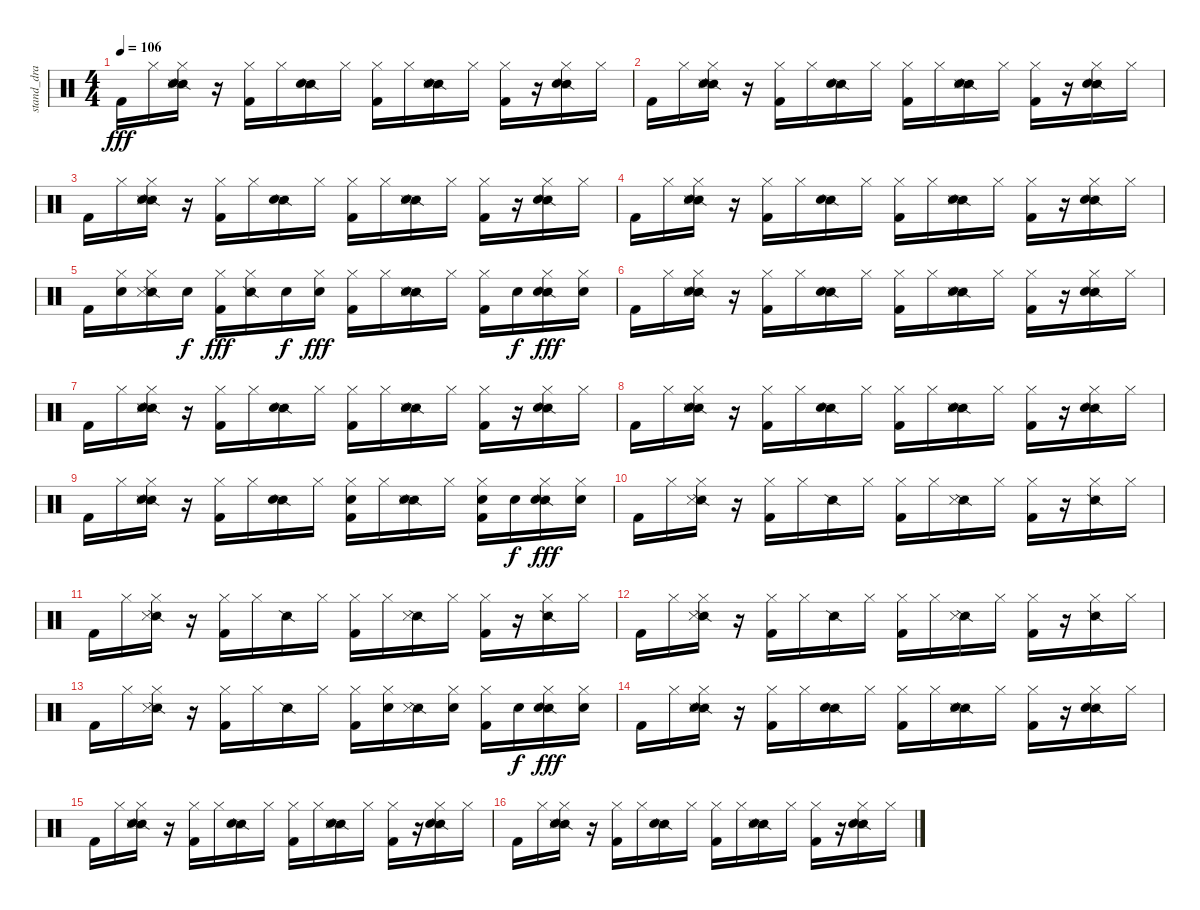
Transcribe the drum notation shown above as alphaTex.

\track ("stand_dra" "stand_dra") {instrument percussion}
\staff {score}
\articulation defaults
\ts (4 4)
\tempo 106
\clef neutral
\ks c "Kick (hit) 2".16{dy fff} "Hi-Hat (closed)".16
("Snare (side stick) 2" "Metronome (hit)" "Snare (hit) 2" "Hi-Hat (closed)").16 r.16 ("Kick (hit) 2" "Hi-Hat (closed)").16 "Hi-Hat (closed)".16 ("Snare (side stick) 2" "Snare (hit) 2").16 "Hi-Hat (closed)".16 ("Kick (hit) 2" "Hi-Hat (closed)").16 "Hi-Hat (closed)".16 ("Snare (side stick) 2" "Metronome (hit)" "Snare (hit) 2").16 "Hi-Hat (closed)".16 ("Kick (hit) 2" "Hi-Hat (closed)").16 r.16 ("Snare (side stick) 2" "Snare (hit) 2" "Hi-Hat (closed)").16 "Hi-Hat (closed)".16 |
"Kick (hit) 2".16 "Hi-Hat (closed)".16 ("Snare (side stick) 2" "Metronome (hit)" "Snare (hit) 2" "Hi-Hat (closed)").16 r.16 ("Kick (hit) 2" "Hi-Hat (closed)").16 "Hi-Hat (closed)".16 ("Snare (side stick) 2" "Snare (hit) 2").16 "Hi-Hat (closed)".16 ("Kick (hit) 2" "Hi-Hat (closed)").16 "Hi-Hat (closed)".16 ("Snare (side stick) 2" "Metronome (hit)" "Snare (hit) 2").16 "Hi-Hat (closed)".16 ("Kick (hit) 2" "Hi-Hat (closed)").16 r.16 ("Snare (side stick) 2" "Snare (hit) 2" "Hi-Hat (closed)").16 "Hi-Hat (closed)".16 |
"Kick (hit) 2".16 "Hi-Hat (closed)".16 ("Snare (side stick) 2" "Metronome (hit)" "Snare (hit) 2" "Hi-Hat (closed)").16 r.16 ("Kick (hit) 2" "Hi-Hat (closed)").16 "Hi-Hat (closed)".16 ("Snare (side stick) 2" "Snare (hit) 2").16 "Hi-Hat (closed)".16 ("Kick (hit) 2" "Hi-Hat (closed)").16 "Hi-Hat (closed)".16 ("Snare (side stick) 2" "Metronome (hit)" "Snare (hit) 2").16 "Hi-Hat (closed)".16 ("Kick (hit) 2" "Hi-Hat (closed)").16 r.16 ("Snare (side stick) 2" "Snare (hit) 2" "Hi-Hat (closed)").16 "Hi-Hat (closed)".16 |
"Kick (hit) 2".16 "Hi-Hat (closed)".16 ("Snare (side stick) 2" "Metronome (hit)" "Snare (hit) 2" "Hi-Hat (closed)").16 r.16 ("Kick (hit) 2" "Hi-Hat (closed)").16 "Hi-Hat (closed)".16 ("Snare (side stick) 2" "Snare (hit) 2").16 "Hi-Hat (closed)".16 ("Kick (hit) 2" "Hi-Hat (closed)").16 "Hi-Hat (closed)".16 ("Snare (side stick) 2" "Metronome (hit)" "Snare (hit) 2").16 "Hi-Hat (closed)".16 ("Kick (hit) 2" "Hi-Hat (closed)").16 r.16 ("Snare (side stick) 2" "Snare (hit) 2" "Hi-Hat (closed)").16 "Hi-Hat (closed)".16 |
"Kick (hit) 2".16 ("Snare (hit) 2" "Hi-Hat (closed)").16 ("Snare (side stick) 2" "Metronome (hit)" "Hi-Hat (closed)").16 "Snare (hit) 2".16{dy f} ("Kick (hit) 2" "Hi-Hat (closed)").16{dy fff} ("Snare (side stick) 2" "Hi-Hat (closed)").16 "Snare (hit) 2".16{dy f} ("Snare (hit) 2" "Hi-Hat (closed)").16{dy fff} ("Kick (hit) 2" "Hi-Hat (closed)").16 "Hi-Hat (closed)".16 ("Snare (side stick) 2" "Metronome (hit)" "Snare (hit) 2").16 "Hi-Hat (closed)".16 ("Kick (hit) 2" "Hi-Hat (closed)").16 "Snare (hit) 2".16{dy f} ("Snare (side stick) 2" "Snare (hit) 2" "Hi-Hat (closed)").16{dy fff} ("Snare (hit) 2" "Hi-Hat (closed)").16 |
"Kick (hit) 2".16 "Hi-Hat (closed)".16 ("Snare (side stick) 2" "Metronome (hit)" "Snare (hit) 2" "Hi-Hat (closed)").16 r.16 ("Kick (hit) 2" "Hi-Hat (closed)").16 "Hi-Hat (closed)".16 ("Snare (side stick) 2" "Snare (hit) 2").16 "Hi-Hat (closed)".16 ("Kick (hit) 2" "Hi-Hat (closed)").16 "Hi-Hat (closed)".16 ("Snare (side stick) 2" "Metronome (hit)" "Snare (hit) 2").16 "Hi-Hat (closed)".16 ("Kick (hit) 2" "Hi-Hat (closed)").16 r.16 ("Snare (side stick) 2" "Snare (hit) 2" "Hi-Hat (closed)").16 "Hi-Hat (closed)".16 |
"Kick (hit) 2".16 "Hi-Hat (closed)".16 ("Snare (side stick) 2" "Metronome (hit)" "Snare (hit) 2" "Hi-Hat (closed)").16 r.16 ("Kick (hit) 2" "Hi-Hat (closed)").16 "Hi-Hat (closed)".16 ("Snare (side stick) 2" "Snare (hit) 2").16 "Hi-Hat (closed)".16 ("Kick (hit) 2" "Hi-Hat (closed)").16 "Hi-Hat (closed)".16 ("Snare (side stick) 2" "Metronome (hit)" "Snare (hit) 2").16 "Hi-Hat (closed)".16 ("Kick (hit) 2" "Hi-Hat (closed)").16 r.16 ("Snare (side stick) 2" "Snare (hit) 2" "Hi-Hat (closed)").16 "Hi-Hat (closed)".16 |
"Kick (hit) 2".16 "Hi-Hat (closed)".16 ("Snare (side stick) 2" "Metronome (hit)" "Snare (hit) 2" "Hi-Hat (closed)").16 r.16 ("Kick (hit) 2" "Hi-Hat (closed)").16 "Hi-Hat (closed)".16 ("Snare (side stick) 2" "Snare (hit) 2").16 "Hi-Hat (closed)".16 ("Kick (hit) 2" "Hi-Hat (closed)").16 "Hi-Hat (closed)".16 ("Snare (side stick) 2" "Metronome (hit)" "Snare (hit) 2").16 "Hi-Hat (closed)".16 ("Kick (hit) 2" "Hi-Hat (closed)").16 r.16 ("Snare (side stick) 2" "Snare (hit) 2" "Hi-Hat (closed)").16 "Hi-Hat (closed)".16 |
"Kick (hit) 2".16 "Hi-Hat (closed)".16 ("Snare (side stick) 2" "Metronome (hit)" "Snare (hit) 2" "Hi-Hat (closed)").16 r.16 ("Kick (hit) 2" "Hi-Hat (closed)").16 "Hi-Hat (closed)".16 ("Snare (side stick) 2" "Snare (hit) 2").16 "Hi-Hat (closed)".16 ("Kick (hit) 2" "Snare (hit) 2" "Hi-Hat (closed)").16 "Hi-Hat (closed)".16 ("Snare (side stick) 2" "Metronome (hit)" "Snare (hit) 2").16 "Hi-Hat (closed)".16 ("Kick (hit) 2" "Snare (hit) 2" "Hi-Hat (closed)").16 "Snare (hit) 2".16{dy f} ("Snare (side stick) 2" "Snare (hit) 2" "Hi-Hat (closed)").16{dy fff} ("Snare (hit) 2" "Hi-Hat (closed)").16 |
"Kick (hit) 2".16 "Hi-Hat (closed)".16 ("Snare (side stick) 2" "Metronome (hit)" "Hi-Hat (closed)").16 r.16 ("Kick (hit) 2" "Hi-Hat (closed)").16 "Hi-Hat (closed)".16 "Snare (side stick) 2".16 "Hi-Hat (closed)".16 ("Kick (hit) 2" "Hi-Hat (closed)").16 "Hi-Hat (closed)".16 ("Snare (side stick) 2" "Metronome (hit)").16 "Hi-Hat (closed)".16 ("Kick (hit) 2" "Hi-Hat (closed)").16 r.16 ("Snare (side stick) 2" "Hi-Hat (closed)").16 "Hi-Hat (closed)".16 |
"Kick (hit) 2".16 "Hi-Hat (closed)".16 ("Snare (side stick) 2" "Metronome (hit)" "Hi-Hat (closed)").16 r.16 ("Kick (hit) 2" "Hi-Hat (closed)").16 "Hi-Hat (closed)".16 "Snare (side stick) 2".16 "Hi-Hat (closed)".16 ("Kick (hit) 2" "Hi-Hat (closed)").16 "Hi-Hat (closed)".16 ("Snare (side stick) 2" "Metronome (hit)").16 "Hi-Hat (closed)".16 ("Kick (hit) 2" "Hi-Hat (closed)").16 r.16 ("Snare (side stick) 2" "Hi-Hat (closed)").16 "Hi-Hat (closed)".16 |
"Kick (hit) 2".16 "Hi-Hat (closed)".16 ("Snare (side stick) 2" "Metronome (hit)" "Hi-Hat (closed)").16 r.16 ("Kick (hit) 2" "Hi-Hat (closed)").16 "Hi-Hat (closed)".16 "Snare (side stick) 2".16 "Hi-Hat (closed)".16 ("Kick (hit) 2" "Hi-Hat (closed)").16 "Hi-Hat (closed)".16 ("Snare (side stick) 2" "Metronome (hit)").16 "Hi-Hat (closed)".16 ("Kick (hit) 2" "Hi-Hat (closed)").16 r.16 ("Snare (side stick) 2" "Hi-Hat (closed)").16 "Hi-Hat (closed)".16 |
"Kick (hit) 2".16 "Hi-Hat (closed)".16 ("Snare (side stick) 2" "Metronome (hit)" "Hi-Hat (closed)").16 r.16 ("Kick (hit) 2" "Hi-Hat (closed)").16 "Hi-Hat (closed)".16 "Snare (side stick) 2".16 "Hi-Hat (closed)".16 ("Kick (hit) 2" "Hi-Hat (closed)").16 ("Snare (hit) 2" "Hi-Hat (closed)").16 ("Snare (side stick) 2" "Metronome (hit)").16 ("Snare (hit) 2" "Hi-Hat (closed)").16 ("Kick (hit) 2" "Hi-Hat (closed)").16 "Snare (hit) 2".16{dy f} ("Snare (side stick) 2" "Snare (hit) 2" "Hi-Hat (closed)").16{dy fff} ("Snare (hit) 2" "Hi-Hat (closed)").16 |
"Kick (hit) 2".16 "Hi-Hat (closed)".16 ("Snare (side stick) 2" "Metronome (hit)" "Snare (hit) 2" "Hi-Hat (closed)").16 r.16 ("Kick (hit) 2" "Hi-Hat (closed)").16 "Hi-Hat (closed)".16 ("Snare (side stick) 2" "Snare (hit) 2").16 "Hi-Hat (closed)".16 ("Kick (hit) 2" "Hi-Hat (closed)").16 "Hi-Hat (closed)".16 ("Snare (side stick) 2" "Metronome (hit)" "Snare (hit) 2").16 "Hi-Hat (closed)".16 ("Kick (hit) 2" "Hi-Hat (closed)").16 r.16 ("Snare (side stick) 2" "Snare (hit) 2" "Hi-Hat (closed)").16 "Hi-Hat (closed)".16 |
"Kick (hit) 2".16 "Hi-Hat (closed)".16 ("Snare (side stick) 2" "Metronome (hit)" "Snare (hit) 2" "Hi-Hat (closed)").16 r.16 ("Kick (hit) 2" "Hi-Hat (closed)").16 "Hi-Hat (closed)".16 ("Snare (side stick) 2" "Snare (hit) 2").16 "Hi-Hat (closed)".16 ("Kick (hit) 2" "Hi-Hat (closed)").16 "Hi-Hat (closed)".16 ("Snare (side stick) 2" "Metronome (hit)" "Snare (hit) 2").16 "Hi-Hat (closed)".16 ("Kick (hit) 2" "Hi-Hat (closed)").16 r.16 ("Snare (side stick) 2" "Snare (hit) 2" "Hi-Hat (closed)").16 "Hi-Hat (closed)".16 |
"Kick (hit) 2".16 "Hi-Hat (closed)".16 ("Snare (side stick) 2" "Metronome (hit)" "Snare (hit) 2" "Hi-Hat (closed)").16 r.16 ("Kick (hit) 2" "Hi-Hat (closed)").16 "Hi-Hat (closed)".16 ("Snare (side stick) 2" "Snare (hit) 2").16 "Hi-Hat (closed)".16 ("Kick (hit) 2" "Hi-Hat (closed)").16 "Hi-Hat (closed)".16 ("Snare (side stick) 2" "Metronome (hit)" "Snare (hit) 2").16 "Hi-Hat (closed)".16 ("Kick (hit) 2" "Hi-Hat (closed)").16 r.16 ("Snare (side stick) 2" "Snare (hit) 2" "Hi-Hat (closed)").16 "Hi-Hat (closed)".16
